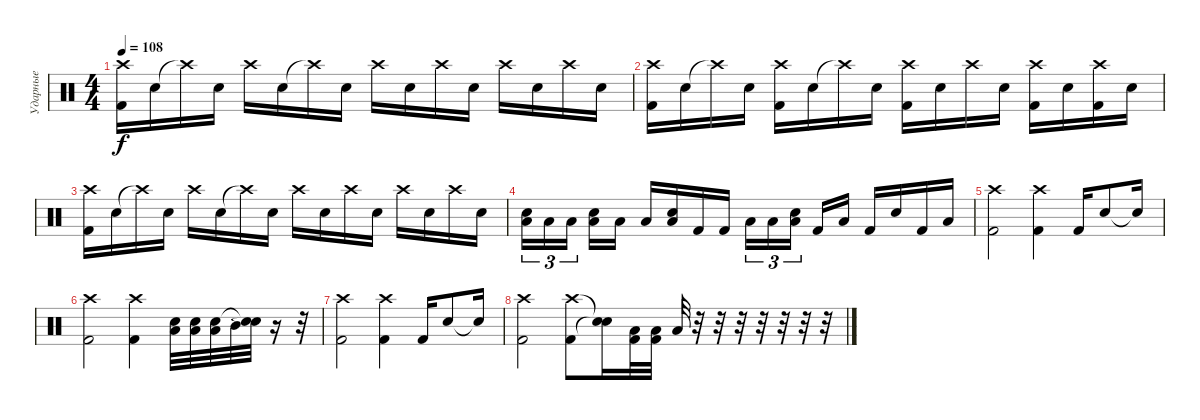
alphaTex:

\track ("Ударные" "Ударные") {instrument percussion}
\staff {score}
\articulation defaults
\ts (4 4)
\tempo 108
\clef neutral
\ks c
("Crash high (hit)" "Kick (hit) 2").16{dy f} "Electric Snare (hit)".16 "Crash high (hit)"{t}.16 "Electric Snare (hit)".16 "Crash high (hit)".16 "Electric Snare (hit)".16 "Crash high (hit)"{t}.16 "Electric Snare (hit)".16 "Crash high (hit)".16 "Electric Snare (hit)".16 "Crash high (hit)".16 "Electric Snare (hit)".16 "Crash high (hit)".16 "Electric Snare (hit)".16 "Crash high (hit)".16 "Electric Snare (hit)".16 |
("Crash high (hit)" "Kick (hit) 2").16 "Electric Snare (hit)".16 "Crash high (hit)"{t}.16 "Electric Snare (hit)".16 ("Crash high (hit)" "Kick (hit) 2").16 "Electric Snare (hit)".16 "Crash high (hit)"{t}.16 "Electric Snare (hit)".16 ("Crash high (hit)" "Kick (hit) 2").16 "Electric Snare (hit)".16 "Crash high (hit)".16 "Electric Snare (hit)".16 ("Crash high (hit)" "Kick (hit) 2").16 "Electric Snare (hit)".16 ("Crash high (hit)" "Kick (hit) 2").16 "Electric Snare (hit)".16 |
("Crash high (hit)" "Kick (hit) 2").16 "Electric Snare (hit)".16 "Crash high (hit)"{t}.16 "Electric Snare (hit)".16 "Crash high (hit)".16 "Electric Snare (hit)".16 "Crash high (hit)"{t}.16 "Electric Snare (hit)".16 "Crash high (hit)".16 "Electric Snare (hit)".16 "Crash high (hit)".16 "Electric Snare (hit)".16 "Crash high (hit)".16 "Electric Snare (hit)".16 "Crash high (hit)".16 "Electric Snare (hit)".16 |
("Electric Snare (hit)" "Low Tom (hit)").16{tu (3 2)} "Low Tom (hit)".16{tu (3 2)} "Low Tom (hit)".16{tu (3 2) beam splitsecondary} ("Electric Snare (hit)" "Low Floor Tom (hit)").16 "Low Floor Tom (hit)".16 "Low Floor Tom (hit)".16 ("Electric Snare (hit)" "Low Floor Tom (hit)").16 "Kick (hit) 2".16 "Kick (hit) 2".16 "Low Floor Tom (hit)".16{tu (3 2)} "Low Tom (hit)".16{tu (3 2)} ("Electric Snare (hit)" "Low Tom (hit)").16{tu (3 2) beam splitsecondary} "Kick (hit) 2".16 "Low Tom (hit)".16 "Kick (hit) 2".16 "Electric Snare (hit)".16 "Kick (hit) 2".16 "Low Tom (hit)".16 |
("Crash high (hit)" "Kick (hit) 2").2 ("Crash high (hit)" "Kick (hit) 2").4 "Kick (hit) 2".16 "Electric Snare (hit)".8 "Snare (hit)"{t}.16 |
("Crash high (hit)" "Kick (hit) 2").2 ("Crash high (hit)" "Kick (hit) 2").4 ("Low Floor Tom (hit)" "Electric Snare (hit)").32 ("Low Floor Tom (hit)" "Electric Snare (hit)").32 ("Low Tom (hit)" "Electric Snare (hit)").32 "Mid Tom (hit)".32 ("Snare (hit)"{t} "Snare (hit)"{t}).32 r.16 r.32 |
("Crash high (hit)" "Kick (hit) 2").2 ("Crash high (hit)" "Kick (hit) 2").4 "Kick (hit) 2".16 "Electric Snare (hit)".8 "Snare (hit)"{t}.16 |
("Crash high (hit)" "Kick (hit) 2").2 ("Crash high (hit)" "Kick (hit) 2").8 ("Snare (hit)"{t} "Snare (hit)"{t}).16 ("Low Tom (hit)" "Kick (hit) 2").32 ("Low Tom (hit)" "Kick (hit) 2").32 "Low Tom (hit)".32 r.32 r.32 r.32 r.32 r.32 r.32 r.32
